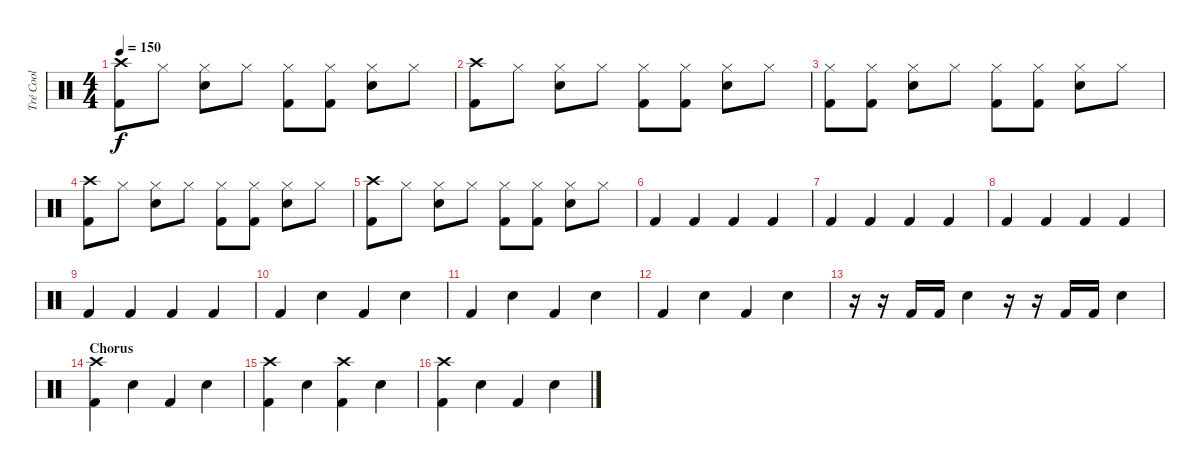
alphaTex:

\track ("Tré Cool" "Tré Cool") {instrument percussion}
\staff {score}
\articulation defaults
\ts (4 4)
\tempo 150
\clef neutral
\ks c
("Kick (hit) 2" "Crash high (hit)").8{dy f} "Hi-Hat (closed)".8 ("Snare (hit) 2" "Hi-Hat (closed)").8 "Hi-Hat (closed)".8 ("Kick (hit) 2" "Hi-Hat (closed)").8 ("Kick (hit) 2" "Hi-Hat (closed)").8 ("Snare (hit) 2" "Hi-Hat (closed)").8 "Hi-Hat (closed)".8 |
("Kick (hit) 2" "Crash high (hit)").8 "Hi-Hat (closed)".8 ("Snare (hit) 2" "Hi-Hat (closed)").8 "Hi-Hat (closed)".8 ("Kick (hit) 2" "Hi-Hat (closed)").8 ("Kick (hit) 2" "Hi-Hat (closed)").8 ("Snare (hit) 2" "Hi-Hat (closed)").8 "Hi-Hat (closed)".8 |
("Kick (hit) 2" "Hi-Hat (closed)").8 ("Kick (hit) 2" "Hi-Hat (closed)").8 ("Snare (hit) 2" "Hi-Hat (closed)").8 "Hi-Hat (closed)".8 ("Kick (hit) 2" "Hi-Hat (closed)").8 ("Kick (hit) 2" "Hi-Hat (closed)").8 ("Snare (hit) 2" "Hi-Hat (closed)").8 "Hi-Hat (closed)".8 |
("Kick (hit) 2" "Crash high (hit)").8 "Hi-Hat (closed)".8 ("Snare (hit) 2" "Hi-Hat (closed)").8 "Hi-Hat (closed)".8 ("Kick (hit) 2" "Hi-Hat (closed)").8 ("Kick (hit) 2" "Hi-Hat (closed)").8 ("Snare (hit) 2" "Hi-Hat (closed)").8 "Hi-Hat (closed)".8 |
("Kick (hit) 2" "Crash high (hit)").8 "Hi-Hat (closed)".8 ("Snare (hit) 2" "Hi-Hat (closed)").8 "Hi-Hat (closed)".8 ("Kick (hit) 2" "Hi-Hat (closed)").8 ("Kick (hit) 2" "Hi-Hat (closed)").8 ("Snare (hit) 2" "Hi-Hat (closed)").8 "Hi-Hat (closed)".8 |
"Kick (hit) 2".4 "Kick (hit) 2".4 "Kick (hit) 2".4 "Kick (hit) 2".4 |
"Kick (hit) 2".4 "Kick (hit) 2".4 "Kick (hit) 2".4 "Kick (hit) 2".4 |
"Kick (hit) 2".4 "Kick (hit) 2".4 "Kick (hit) 2".4 "Kick (hit) 2".4 |
"Kick (hit) 2".4 "Kick (hit) 2".4 "Kick (hit) 2".4 "Kick (hit) 2".4 |
"Kick (hit) 2".4 "Snare (hit) 2".4 "Kick (hit) 2".4 "Snare (hit) 2".4 |
"Kick (hit) 2".4 "Snare (hit) 2".4 "Kick (hit) 2".4 "Snare (hit) 2".4 |
"Kick (hit) 2".4 "Snare (hit) 2".4 "Kick (hit) 2".4 "Snare (hit) 2".4 |
r.16 r.16 "Kick (hit) 2".16 "Kick (hit) 2".16 "Snare (hit) 2".4 r.16 r.16 "Kick (hit) 2".16 "Kick (hit) 2".16 "Snare (hit) 2".4 |
\section ("" "Chorus")
("Kick (hit) 2" "Crash high (hit)").4 "Snare (hit) 2".4 "Kick (hit) 2".4 "Snare (hit) 2".4 |
("Kick (hit) 2" "Crash high (hit)").4 "Snare (hit) 2".4 ("Kick (hit) 2" "Crash high (hit)").4 "Snare (hit) 2".4 |
("Kick (hit) 2" "Crash high (hit)").4 "Snare (hit) 2".4 "Kick (hit) 2".4 "Snare (hit) 2".4
